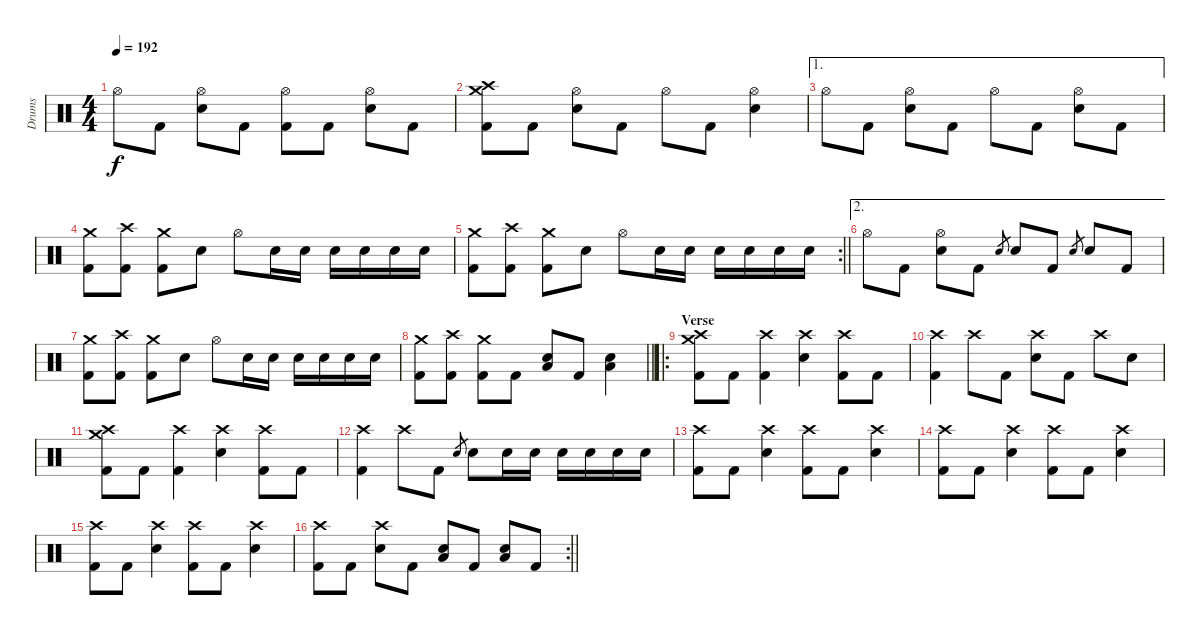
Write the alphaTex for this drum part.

\track ("Drums" "Drums") {instrument percussion}
\staff {score}
\articulation defaults
\ts (4 4)
\tempo 192
\clef neutral
\ks c "Hi-Hat (open)".8{dy f} "Kick (hit) 2".8
("Hi-Hat (open)" "Electric Snare (hit)").8 "Kick (hit) 2".8 ("Hi-Hat (open)" "Kick (hit) 2").8 "Kick (hit) 2".8 ("Hi-Hat (open)" "Electric Snare (hit)").8 "Kick (hit) 2".8 |
("Crash medium (hit)" "Crash high (hit)" "Kick (hit) 2").8 "Kick (hit) 2".8 ("Hi-Hat (open)" "Electric Snare (hit)").8 "Kick (hit) 2".8 "Hi-Hat (open)".8 "Kick (hit) 2".8 ("Hi-Hat (open)" "Electric Snare (hit)").4 |
\ae 1 "Hi-Hat (open)".8 "Kick (hit) 2".8
("Hi-Hat (open)" "Electric Snare (hit)").8 "Kick (hit) 2".8 "Hi-Hat (open)".8 "Kick (hit) 2".8 ("Hi-Hat (open)" "Electric Snare (hit)").8 "Kick (hit) 2".8 |
("Crash medium (hit)" "Kick (hit) 2").8 ("Crash high (hit)" "Kick (hit) 2").8 ("Crash medium (hit)" "Kick (hit) 2").8 "Electric Snare (hit)".8 "Hi-Hat (open)".8 "Electric Snare (hit)".16 "Electric Snare (hit)".16 "Electric Snare (hit)".16 "Electric Snare (hit)".16 "Electric Snare (hit)".16 "Electric Snare (hit)".16 |
\rc 2
\barLineRight lightlight
("Crash medium (hit)" "Kick (hit) 2").8 ("Crash high (hit)" "Kick (hit) 2").8 ("Crash medium (hit)" "Kick (hit) 2").8 "Electric Snare (hit)".8 "Hi-Hat (open)".8 "Electric Snare (hit)".16 "Electric Snare (hit)".16 "Electric Snare (hit)".16 "Electric Snare (hit)".16 "Electric Snare (hit)".16 "Electric Snare (hit)".16 |
\ae 2 "Hi-Hat (open)".8 "Kick (hit) 2".8
("Hi-Hat (open)" "Electric Snare (hit)").8 "Kick (hit) 2".8 "Electric Snare (hit)".8{gr} "Electric Snare (hit)".8 "Kick (hit) 2".8 "Electric Snare (hit)".8{gr} "Electric Snare (hit)".8 "Kick (hit) 2".8 |
("Crash medium (hit)" "Kick (hit) 2").8 ("Crash high (hit)" "Kick (hit) 2").8 ("Crash medium (hit)" "Kick (hit) 2").8 "Electric Snare (hit)".8 "Hi-Hat (open)".8 "Electric Snare (hit)".16 "Electric Snare (hit)".16 "Electric Snare (hit)".16 "Electric Snare (hit)".16 "Electric Snare (hit)".16 "Electric Snare (hit)".16 |
\barLineRight lightlight
("Crash medium (hit)" "Kick (hit) 2").8 ("Crash high (hit)" "Kick (hit) 2").8 ("Crash medium (hit)" "Kick (hit) 2").8 "Kick (hit) 2".8 ("Electric Snare (hit)" "Low Floor Tom (hit)").8 "Kick (hit) 2".8 ("Electric Snare (hit)" "Low Floor Tom (hit)").4 |
\ro
\section ("" "Verse")
("Crash medium (hit)" "Crash high (hit)" "Kick (hit) 2").8 "Kick (hit) 2".8 ("Crash high (hit)" "Kick (hit) 2").4 ("Crash high (hit)" "Electric Snare (hit)").4 ("Crash high (hit)" "Kick (hit) 2").8 "Kick (hit) 2".8 |
("Crash high (hit)" "Kick (hit) 2").4 "Crash high (hit)".8 "Kick (hit) 2".8 ("Crash high (hit)" "Electric Snare (hit)").8 "Kick (hit) 2".8 "Crash high (hit)".8 "Electric Snare (hit)".8 |
("Crash medium (hit)" "Crash high (hit)" "Kick (hit) 2").8 "Kick (hit) 2".8 ("Crash high (hit)" "Kick (hit) 2").4 ("Crash high (hit)" "Electric Snare (hit)").4 ("Crash high (hit)" "Kick (hit) 2").8 "Kick (hit) 2".8 |
("Crash high (hit)" "Kick (hit) 2").4 "Crash high (hit)".8 "Kick (hit) 2".8 "Electric Snare (hit)".8{gr} "Electric Snare (hit)".8 "Electric Snare (hit)".16 "Electric Snare (hit)".16 "Electric Snare (hit)".16 "Electric Snare (hit)".16 "Electric Snare (hit)".16 "Electric Snare (hit)".16 |
("Crash high (hit)" "Kick (hit) 2").8 "Kick (hit) 2".8 ("Crash high (hit)" "Electric Snare (hit)").4 ("Crash high (hit)" "Kick (hit) 2").8 "Kick (hit) 2".8 ("Crash high (hit)" "Electric Snare (hit)").4 |
("Crash high (hit)" "Kick (hit) 2").8 "Kick (hit) 2".8 ("Crash high (hit)" "Electric Snare (hit)").4 ("Crash high (hit)" "Kick (hit) 2").8 "Kick (hit) 2".8 ("Crash high (hit)" "Electric Snare (hit)").4 |
("Crash high (hit)" "Kick (hit) 2").8 "Kick (hit) 2".8 ("Crash high (hit)" "Electric Snare (hit)").4 ("Crash high (hit)" "Kick (hit) 2").8 "Kick (hit) 2".8 ("Crash high (hit)" "Electric Snare (hit)").4 |
\rc 2
\barLineRight lightlight
("Crash high (hit)" "Kick (hit) 2").8 "Kick (hit) 2".8 ("Crash high (hit)" "Electric Snare (hit)").8 "Kick (hit) 2".8 ("Electric Snare (hit)" "Low Floor Tom (hit)").8 "Kick (hit) 2".8 ("Electric Snare (hit)" "Low Floor Tom (hit)").8 "Kick (hit) 2".8
